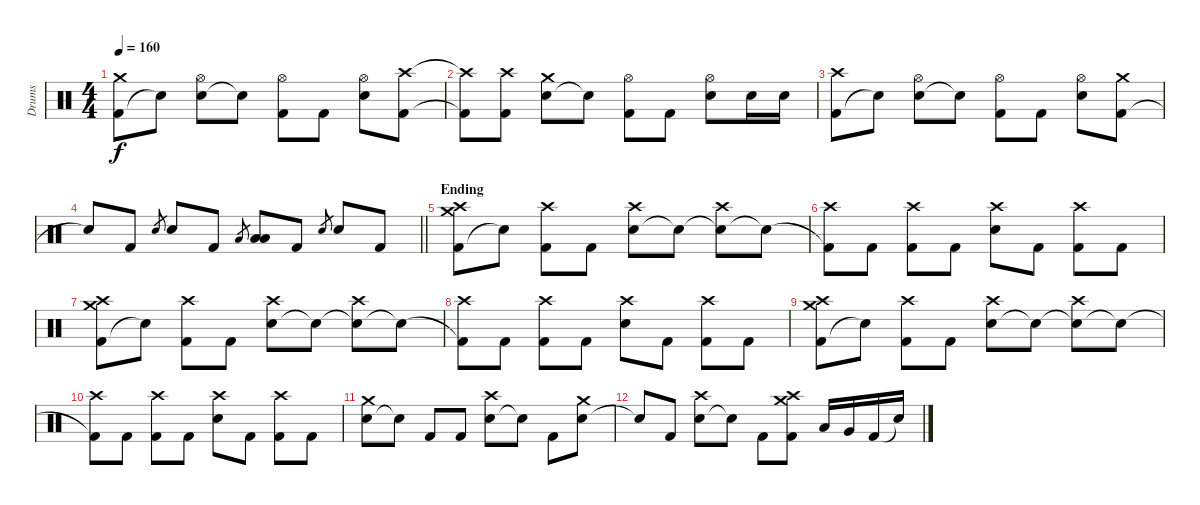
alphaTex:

\track ("Drums" "Drums") {instrument percussion}
\staff {score}
\articulation defaults
\ts (4 4)
\tempo 160
\clef neutral
\ks c
("Kick (hit) 2" "Crash medium (hit)").8{dy f} "Snare (hit)"{t}.8 ("Electric Snare (hit)" "Hi-Hat (open)").8 "Snare (hit)"{t}.8 ("Kick (hit) 2" "Hi-Hat (open)").8 "Kick (hit) 2".8 ("Electric Snare (hit)" "Hi-Hat (open)").8 ("Kick (hit) 2" "Crash high (hit)").8 |
("Kick (hit) 2"{t} "Crash high (hit)"{t}).8 ("Kick (hit) 2" "Crash high (hit)").8 ("Electric Snare (hit)" "Crash medium (hit)").8 "Snare (hit)"{t}.8 ("Kick (hit) 2" "Hi-Hat (open)").8 "Kick (hit) 2".8 ("Electric Snare (hit)" "Hi-Hat (open)").8 "Electric Snare (hit)".16 "Electric Snare (hit)".16 |
("Kick (hit) 2" "Crash high (hit)").8 "Snare (hit)"{t}.8 ("Electric Snare (hit)" "Hi-Hat (open)").8 "Snare (hit)"{t}.8 ("Kick (hit) 2" "Hi-Hat (open)").8 "Kick (hit) 2".8 ("Electric Snare (hit)" "Hi-Hat (open)").8 ("Kick (hit) 2" "Crash medium (hit)").8 |
\barLineRight lightlight "Snare (hit)"{t}.8 "Kick (hit) 2".8 "Electric Snare (hit)".8{gr} "Electric Snare (hit)".8 "Kick (hit) 2".8 "Low Tom (hit)".8{gr}
("Low Tom (hit)" "Low Floor Tom (hit)").8 "Kick (hit) 2".8 "Electric Snare (hit)".8{gr} "Electric Snare (hit)".8 "Kick (hit) 2".8 |
\section ("" "Ending")
("Kick (hit) 2" "Crash medium (hit)" "Crash high (hit)").8 "Snare (hit)"{t}.8 ("Kick (hit) 2" "Crash high (hit)").8 "Kick (hit) 2".8 ("Electric Snare (hit)" "Crash high (hit)").8 "Snare (hit)"{t}.8 ("Snare (hit)"{t} "Crash high (hit)").8 "Snare (hit)"{t}.8 |
("Kick (hit) 2"{t} "Crash high (hit)").8 "Kick (hit) 2".8 ("Kick (hit) 2" "Crash high (hit)").8 "Kick (hit) 2".8 ("Electric Snare (hit)" "Crash high (hit)").8 "Kick (hit) 2".8 ("Kick (hit) 2" "Crash high (hit)").8 "Kick (hit) 2".8 |
("Kick (hit) 2" "Crash medium (hit)" "Crash high (hit)").8 "Snare (hit)"{t}.8 ("Kick (hit) 2" "Crash high (hit)").8 "Kick (hit) 2".8 ("Electric Snare (hit)" "Crash high (hit)").8 "Snare (hit)"{t}.8 ("Snare (hit)"{t} "Crash high (hit)").8 "Snare (hit)"{t}.8 |
("Kick (hit) 2"{t} "Crash high (hit)").8 "Kick (hit) 2".8 ("Kick (hit) 2" "Crash high (hit)").8 "Kick (hit) 2".8 ("Electric Snare (hit)" "Crash high (hit)").8 "Kick (hit) 2".8 ("Kick (hit) 2" "Crash high (hit)").8 "Kick (hit) 2".8 |
("Kick (hit) 2" "Crash medium (hit)" "Crash high (hit)").8 "Snare (hit)"{t}.8 ("Kick (hit) 2" "Crash high (hit)").8 "Kick (hit) 2".8 ("Electric Snare (hit)" "Crash high (hit)").8 "Snare (hit)"{t}.8 ("Snare (hit)"{t} "Crash high (hit)").8 "Snare (hit)"{t}.8 |
("Kick (hit) 2"{t} "Crash high (hit)").8 "Kick (hit) 2".8 ("Kick (hit) 2" "Crash high (hit)").8 "Kick (hit) 2".8 ("Electric Snare (hit)" "Crash high (hit)").8 "Kick (hit) 2".8 ("Kick (hit) 2" "Crash high (hit)").8 "Kick (hit) 2".8 |
("Electric Snare (hit)" "Crash medium (hit)").8 "Snare (hit)"{t}.8 "Kick (hit) 2".8 "Kick (hit) 2".8 ("Electric Snare (hit)" "Crash high (hit)").8 "Snare (hit)"{t}.8 "Kick (hit) 2".8 ("Electric Snare (hit)" "Crash medium (hit)").8 |
"Snare (hit)"{t}.8 "Kick (hit) 2".8 ("Electric Snare (hit)" "Crash high (hit)").8 "Snare (hit)"{t}.8 "Kick (hit) 2".8 ("Kick (hit) 2" "Crash medium (hit)" "Crash high (hit)").8 "Low Tom (hit)".16 "Very Low Tom (hit)".16 "Kick (hit) 2".16 "Snare (hit)"{t}.16
